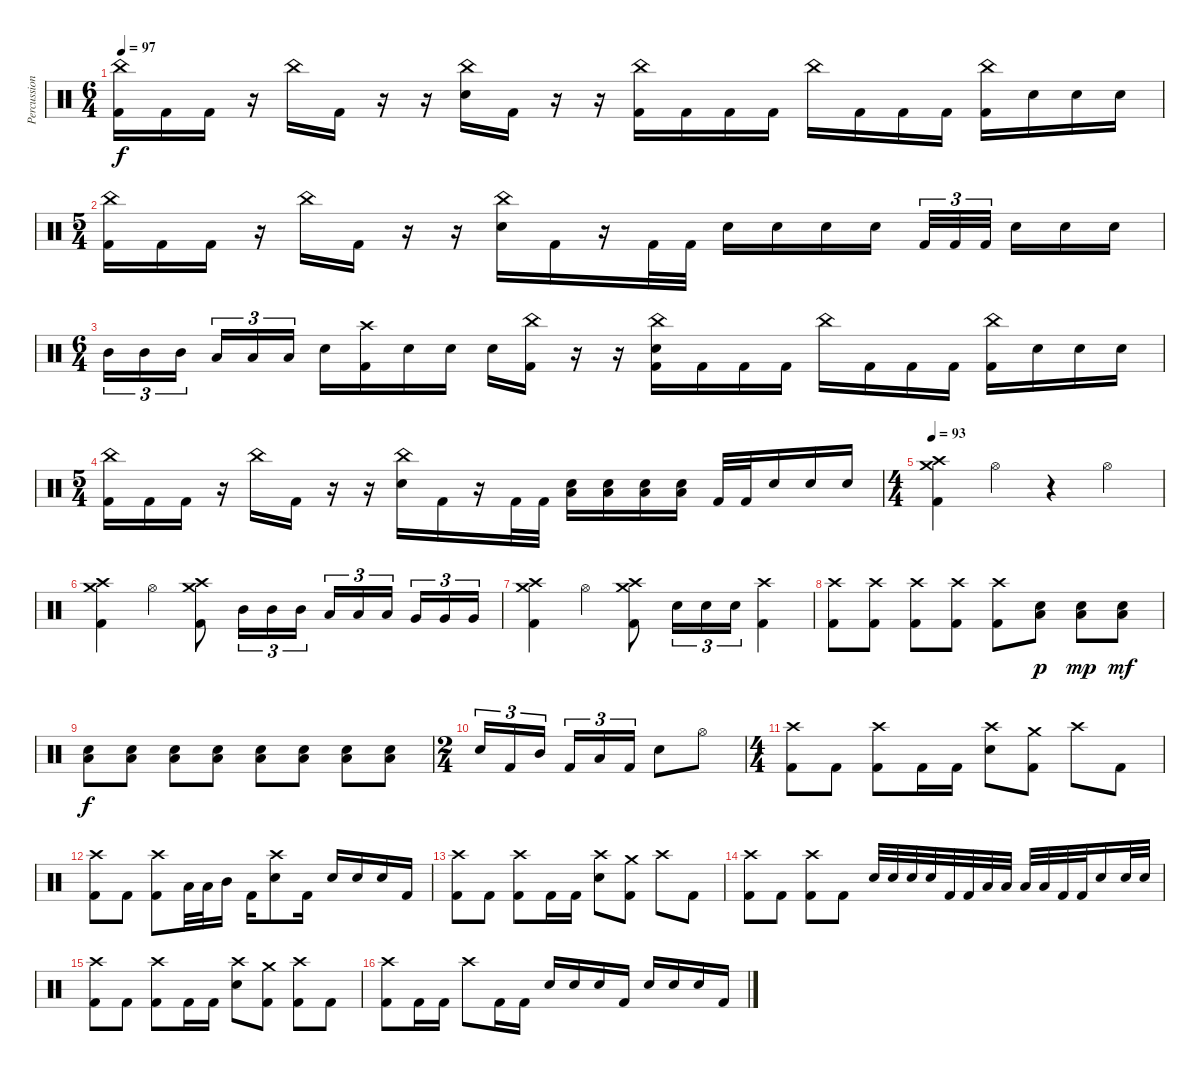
\track ("Percussion" "Percussion") {instrument percussion}
\staff {score}
\articulation defaults
\ts (6 4)
\tempo 97
\clef neutral
\ks c
("China (hit)" "Kick (hit) 2").16{dy f} "Kick (hit) 2".16 "Kick (hit) 2".16 r.16 "China (hit)".16 "Kick (hit) 2".16 r.16 r.16 ("China (hit)" "Snare (hit) 2").16 "Kick (hit) 2".16 r.16 r.16 ("China (hit)" "Kick (hit) 2").16 "Kick (hit) 2".16 "Kick (hit) 2".16 "Kick (hit) 2".16 "China (hit)".16 "Kick (hit) 2".16 "Kick (hit) 2".16 "Kick (hit) 2".16 ("China (hit)" "Kick (hit) 2").16 "Snare (hit) 2".16 "Snare (hit) 2".16 "Snare (hit) 2".16 |
\ts (5 4)
("China (hit)" "Kick (hit) 2").16 "Kick (hit) 2".16 "Kick (hit) 2".16 r.16 "China (hit)".16 "Kick (hit) 2".16 r.16 r.16 ("China (hit)" "Snare (hit) 2").16 "Kick (hit) 2".16 r.16 "Kick (hit) 2".32 "Kick (hit) 2".32 "Snare (hit) 2".16 "Snare (hit) 2".16 "Snare (hit) 2".16 "Snare (hit) 2".16 "Kick (hit) 2".32{tu (3 2)} "Kick (hit) 2".32{tu (3 2)} "Kick (hit) 2".32{tu (3 2) beam splitsecondary} "Snare (hit) 2".16 "Snare (hit) 2".16 "Snare (hit) 2".16 |
\ts (6 4)
"Mid Tom (hit)".16{tu (3 2)} "Mid Tom (hit)".16{tu (3 2)} "Mid Tom (hit)".16{tu (3 2) beam splitsecondary} "Low Tom (hit)".16{tu (3 2)} "Low Tom (hit)".16{tu (3 2)} "Low Tom (hit)".16{tu (3 2) beam splitsecondary} "Snare (hit) 2".16 ("Crash high (hit)" "Kick (hit) 2").16 "Snare (hit) 2".16 "Snare (hit) 2".16 "Snare (hit) 2".16 ("China (hit)" "Kick (hit) 2").16 r.16 r.16 ("China (hit)" "Snare (hit) 2" "Kick (hit) 2").16 "Kick (hit) 2".16 "Kick (hit) 2".16 "Kick (hit) 2".16 "China (hit)".16 "Kick (hit) 2".16 "Kick (hit) 2".16 "Kick (hit) 2".16 ("China (hit)" "Kick (hit) 2").16 "Snare (hit) 2".16 "Snare (hit) 2".16 "Snare (hit) 2".16 |
\ts (5 4)
("China (hit)" "Kick (hit) 2").16 "Kick (hit) 2".16 "Kick (hit) 2".16 r.16 "China (hit)".16 "Kick (hit) 2".16 r.16 r.16 ("China (hit)" "Snare (hit) 2").16 "Kick (hit) 2".16 r.16 "Kick (hit) 2".32 "Kick (hit) 2".32 ("Low Floor Tom (hit)" "Snare (hit) 2").16 ("Low Floor Tom (hit)" "Snare (hit) 2").16 ("Low Floor Tom (hit)" "Snare (hit) 2").16 ("Low Floor Tom (hit)" "Snare (hit) 2").16 "Kick (hit) 2".32 "Kick (hit) 2".32 "Snare (hit) 2".16 "Snare (hit) 2".16 "Snare (hit) 2".16 |
\ts (4 4)
\tempo 93
("Crash high (hit)" "Crash medium (hit)" "Kick (hit) 2").4 "Hi-Hat (open)".4 r.4 "Hi-Hat (open)".4 |
("Crash high (hit)" "Crash medium (hit)" "Kick (hit) 2").4 "Hi-Hat (open)".4 ("Crash high (hit)" "Crash medium (hit)" "Kick (hit) 2").8 "Mid Tom (hit)".16{tu (3 2)} "Mid Tom (hit)".16{tu (3 2)} "Mid Tom (hit)".16{tu (3 2)} "Low Tom (hit)".16{tu (3 2)} "Low Tom (hit)".16{tu (3 2)} "Low Tom (hit)".16{tu (3 2) beam splitsecondary} "Very Low Tom (hit)".16{tu (3 2)} "Very Low Tom (hit)".16{tu (3 2)} "Very Low Tom (hit)".16{tu (3 2)} |
("Crash high (hit)" "Crash medium (hit)" "Kick (hit) 2").4 "Hi-Hat (open)".4 ("Crash high (hit)" "Crash medium (hit)" "Kick (hit) 2").8 "Snare (hit) 2".16{tu (3 2)} "Snare (hit) 2".16{tu (3 2)} "Snare (hit) 2".16{tu (3 2)} ("Crash high (hit)" "Kick (hit) 2").4 |
("Crash high (hit)" "Kick (hit) 2").8 ("Crash high (hit)" "Kick (hit) 2").8 ("Crash high (hit)" "Kick (hit) 2").8 ("Crash high (hit)" "Kick (hit) 2").8 ("Crash high (hit)" "Kick (hit) 2").8 ("Low Floor Tom (hit)" "Snare (hit) 2").8{dy p} ("Low Floor Tom (hit)" "Snare (hit) 2").8{dy mp} ("Low Floor Tom (hit)" "Snare (hit) 2").8{dy mf} |
("Low Floor Tom (hit)" "Snare (hit) 2").8{dy f} ("Low Floor Tom (hit)" "Snare (hit) 2").8 ("Low Floor Tom (hit)" "Snare (hit) 2").8 ("Low Floor Tom (hit)" "Snare (hit) 2").8 ("Low Floor Tom (hit)" "Snare (hit) 2").8 ("Low Floor Tom (hit)" "Snare (hit) 2").8 ("Low Floor Tom (hit)" "Snare (hit) 2").8 ("Low Floor Tom (hit)" "Snare (hit) 2").8 |
\ts (2 4)
"Snare (hit) 2".16{tu (3 2)} "Kick (hit) 2".16{tu (3 2)} "Mid Tom (hit)".16{tu (3 2) beam splitsecondary} "Kick (hit) 2".16{tu (3 2)} "Low Tom (hit)".16{tu (3 2)} "Kick (hit) 2".16{tu (3 2)} "Snare (hit) 2".8 "Hi-Hat (open)".8 |
\ts (4 4)
("Crash high (hit)" "Kick (hit) 2").8 "Kick (hit) 2".8 ("Crash high (hit)" "Kick (hit) 2").8 "Kick (hit) 2".16 "Kick (hit) 2".16 ("Crash high (hit)" "Snare (hit) 2").8 ("Crash medium (hit)" "Kick (hit) 2").8 "Crash high (hit)".8 "Kick (hit) 2".8 |
("Crash high (hit)" "Kick (hit) 2").8 "Kick (hit) 2".8 ("Crash high (hit)" "Kick (hit) 2").8 "Low Tom (hit)".32 "Low Tom (hit)".32 "Mid Tom (hit)".16 "Kick (hit) 2".16 ("Crash high (hit)" "Snare (hit) 2").8 "Kick (hit) 2".16 "Snare (hit) 2".16 "Snare (hit) 2".16 "Snare (hit) 2".16 "Kick (hit) 2".16 |
("Crash high (hit)" "Kick (hit) 2").8 "Kick (hit) 2".8 ("Crash high (hit)" "Kick (hit) 2").8 "Kick (hit) 2".16 "Kick (hit) 2".16 ("Crash high (hit)" "Snare (hit) 2").8 ("Crash medium (hit)" "Kick (hit) 2").8 "Crash high (hit)".8 "Kick (hit) 2".8 |
("Crash high (hit)" "Kick (hit) 2").8 "Kick (hit) 2".8 ("Crash high (hit)" "Kick (hit) 2").8 "Kick (hit) 2".8 "Snare (hit) 2".32 "Snare (hit) 2".32 "Snare (hit) 2".32 "Snare (hit) 2".32 "Kick (hit) 2".32 "Kick (hit) 2".32 "Low Tom (hit)".32 "Low Tom (hit)".32 "Low Tom (hit)".32 "Low Tom (hit)".32 "Kick (hit) 2".32 "Kick (hit) 2".32 "Snare (hit) 2".16 "Snare (hit) 2".32 "Snare (hit) 2".32 |
("Crash high (hit)" "Kick (hit) 2").8 "Kick (hit) 2".8 ("Crash high (hit)" "Kick (hit) 2").8 "Kick (hit) 2".16 "Kick (hit) 2".16 ("Crash high (hit)" "Snare (hit) 2").8 ("Crash medium (hit)" "Kick (hit) 2").8 ("Crash high (hit)" "Kick (hit) 2").8 "Kick (hit) 2".8 |
("Crash high (hit)" "Kick (hit) 2").8 "Kick (hit) 2".16 "Kick (hit) 2".16 "Crash high (hit)".8 "Kick (hit) 2".16 "Kick (hit) 2".16 "Snare (hit) 2".16 "Snare (hit) 2".16 "Snare (hit) 2".16 "Kick (hit) 2".16 "Snare (hit) 2".16 "Snare (hit) 2".16 "Snare (hit) 2".16 "Kick (hit) 2".16
